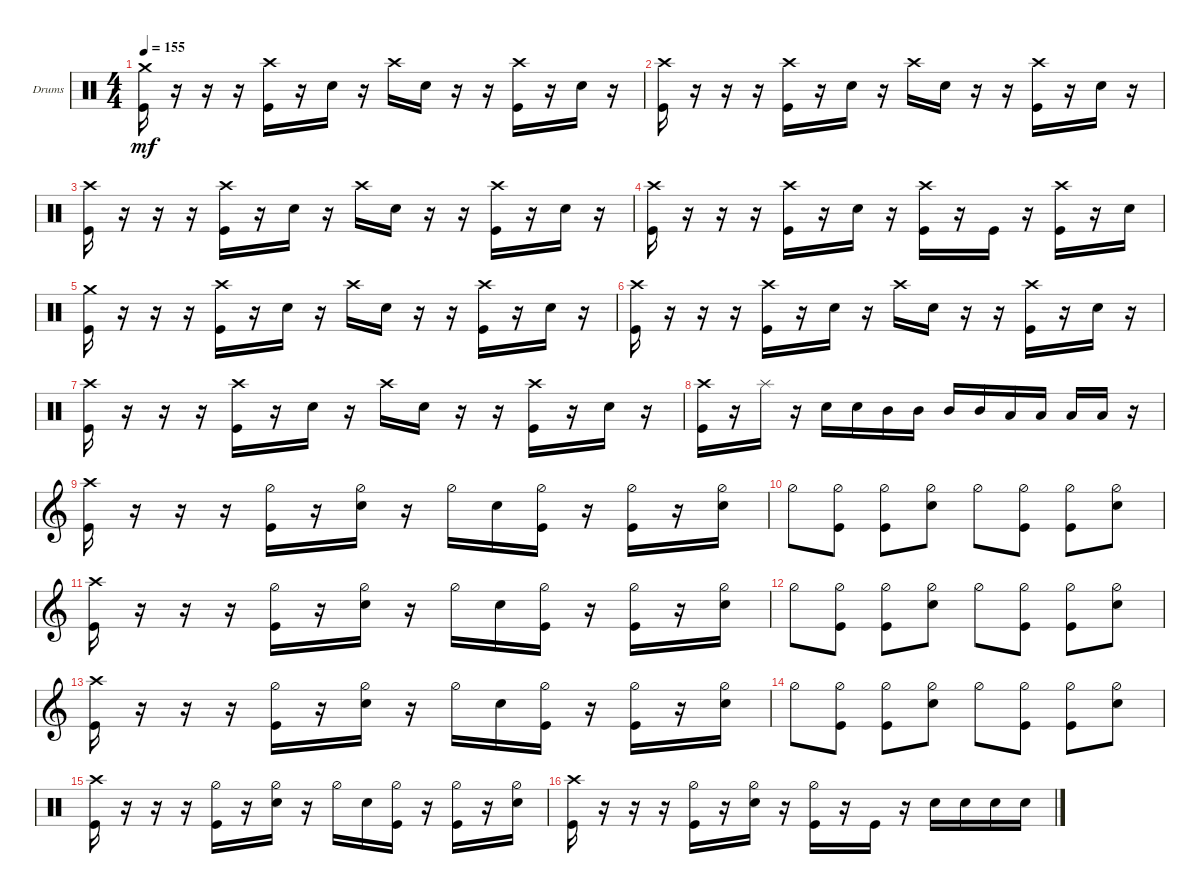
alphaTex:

\defaultSystemsLayout 4
\bracketExtendMode groupsimilarinstruments
\firstSystemTrackNameOrientation horizontal
\otherSystemsTrackNameOrientation horizontal
\track ("Drumkit" "Drums") {instrument percussion}
\staff {score}
\articulation defaults
\ts (4 4)
\tempo 155
\clef neutral
\ks c
("Kick (hit)" "Crash medium (hit)").16{dy mf} r.16 r.16 r.16 ("Kick (hit)" "Crash high (hit)").16 r.16 "Snare (hit) 2".16 r.16 "Crash high (hit)".16 "Snare (hit) 2".16 r.16 r.16 ("Crash high (hit)" "Kick (hit)").16 r.16 "Snare (hit) 2".16 r.16 |
("Kick (hit)" "Crash high (hit)").16 r.16 r.16 r.16 ("Kick (hit)" "Crash high (hit)").16 r.16 "Snare (hit) 2".16 r.16 "Crash high (hit)".16 "Snare (hit) 2".16 r.16 r.16 ("Crash high (hit)" "Kick (hit)").16 r.16 "Snare (hit) 2".16 r.16 |
("Kick (hit)" "Crash high (hit)").16 r.16 r.16 r.16 ("Kick (hit)" "Crash high (hit)").16 r.16 "Snare (hit) 2".16 r.16 "Crash high (hit)".16 "Snare (hit) 2".16 r.16 r.16 ("Crash high (hit)" "Kick (hit)").16 r.16 "Snare (hit) 2".16 r.16 |
("Kick (hit)" "Crash high (hit)").16 r.16 r.16 r.16 ("Kick (hit)" "Crash high (hit)").16 r.16 "Snare (hit) 2".16 r.16 ("Kick (hit)" "Crash high (hit)").16 r.16 "Kick (hit)".16 r.16 ("Kick (hit)" "Crash high (hit)").16 r.16 "Snare (hit) 2".16 |
("Kick (hit)" "Crash medium (hit)").16 r.16 r.16 r.16 ("Kick (hit)" "Crash high (hit)").16 r.16 "Snare (hit) 2".16 r.16 "Crash high (hit)".16 "Snare (hit) 2".16 r.16 r.16 ("Crash high (hit)" "Kick (hit)").16 r.16 "Snare (hit) 2".16 r.16 |
("Kick (hit)" "Crash high (hit)").16 r.16 r.16 r.16 ("Kick (hit)" "Crash high (hit)").16 r.16 "Snare (hit) 2".16 r.16 "Crash high (hit)".16 "Snare (hit) 2".16 r.16 r.16 ("Crash high (hit)" "Kick (hit)").16 r.16 "Snare (hit) 2".16 r.16 |
("Kick (hit)" "Crash high (hit)").16 r.16 r.16 r.16 ("Kick (hit)" "Crash high (hit)").16 r.16 "Snare (hit) 2".16 r.16 "Crash high (hit)".16 "Snare (hit) 2".16 r.16 r.16 ("Crash high (hit)" "Kick (hit)").16 r.16 "Snare (hit) 2".16 r.16 |
("Kick (hit)" "Crash high (hit)").16 r.16 "Splash (hit)".16 r.16 "Snare (hit) 2".16 "Snare (hit) 2".16 "Mid Tom (hit)".16 "Mid Tom (hit)".16 "Mid Tom (hit)".16 "Mid Tom (hit)".16 "Low Tom (hit)".16 "Low Tom (hit)".16 "Low Tom (hit)".16 "Low Tom (hit)".16 r.16 |
\clef g2
("Kick (hit)" "Crash high (hit)").16 r.16 r.16 r.16 ("Kick (hit)" "Hi-Hat (half)").16 r.16 ("Snare (hit) 2" "Hi-Hat (half)").16 r.16 "Hi-Hat (half)".16 "Snare (hit) 2".16 ("Kick (hit)" "Hi-Hat (half)").16 r.16 ("Kick (hit)" "Hi-Hat (half)").16 r.16 ("Snare (hit) 2" "Hi-Hat (half)").16 |
"Hi-Hat (half)".8 ("Kick (hit)" "Hi-Hat (half)").8 ("Kick (hit)" "Hi-Hat (half)").8 ("Snare (hit) 2" "Hi-Hat (half)").8 "Hi-Hat (half)".8 ("Kick (hit)" "Hi-Hat (half)").8 ("Kick (hit)" "Hi-Hat (half)").8 ("Snare (hit) 2" "Hi-Hat (half)").8 |
("Kick (hit)" "Crash high (hit)").16 r.16 r.16 r.16 ("Kick (hit)" "Hi-Hat (half)").16 r.16 ("Snare (hit) 2" "Hi-Hat (half)").16 r.16 "Hi-Hat (half)".16 "Snare (hit) 2".16 ("Kick (hit)" "Hi-Hat (half)").16 r.16 ("Kick (hit)" "Hi-Hat (half)").16 r.16 ("Snare (hit) 2" "Hi-Hat (half)").16 |
"Hi-Hat (half)".8 ("Kick (hit)" "Hi-Hat (half)").8 ("Kick (hit)" "Hi-Hat (half)").8 ("Snare (hit) 2" "Hi-Hat (half)").8 "Hi-Hat (half)".8 ("Kick (hit)" "Hi-Hat (half)").8 ("Kick (hit)" "Hi-Hat (half)").8 ("Snare (hit) 2" "Hi-Hat (half)").8 |
("Kick (hit)" "Crash high (hit)").16 r.16 r.16 r.16 ("Kick (hit)" "Hi-Hat (half)").16 r.16 ("Snare (hit) 2" "Hi-Hat (half)").16 r.16 "Hi-Hat (half)".16 "Snare (hit) 2".16 ("Kick (hit)" "Hi-Hat (half)").16 r.16 ("Kick (hit)" "Hi-Hat (half)").16 r.16 ("Snare (hit) 2" "Hi-Hat (half)").16 |
"Hi-Hat (half)".8 ("Kick (hit)" "Hi-Hat (half)").8 ("Kick (hit)" "Hi-Hat (half)").8 ("Snare (hit) 2" "Hi-Hat (half)").8 "Hi-Hat (half)".8 ("Kick (hit)" "Hi-Hat (half)").8 ("Kick (hit)" "Hi-Hat (half)").8 ("Snare (hit) 2" "Hi-Hat (half)").8 |
\clef neutral
("Kick (hit)" "Crash high (hit)").16 r.16 r.16 r.16 ("Kick (hit)" "Hi-Hat (half)").16 r.16 ("Snare (hit) 2" "Hi-Hat (half)").16 r.16 "Hi-Hat (half)".16 "Snare (hit) 2".16 ("Kick (hit)" "Hi-Hat (half)").16 r.16 ("Kick (hit)" "Hi-Hat (half)").16 r.16 ("Snare (hit) 2" "Hi-Hat (half)").16 |
("Kick (hit)" "Crash high (hit)").16 r.16 r.16 r.16 ("Kick (hit)" "Hi-Hat (half)").16 r.16 ("Snare (hit) 2" "Hi-Hat (half)").16 r.16 ("Kick (hit)" "Hi-Hat (half)").16 r.16 "Kick (hit)".16 r.16 "Snare (hit) 2".16 "Snare (hit) 2".16 "Snare (hit) 2".16 "Snare (hit) 2".16
